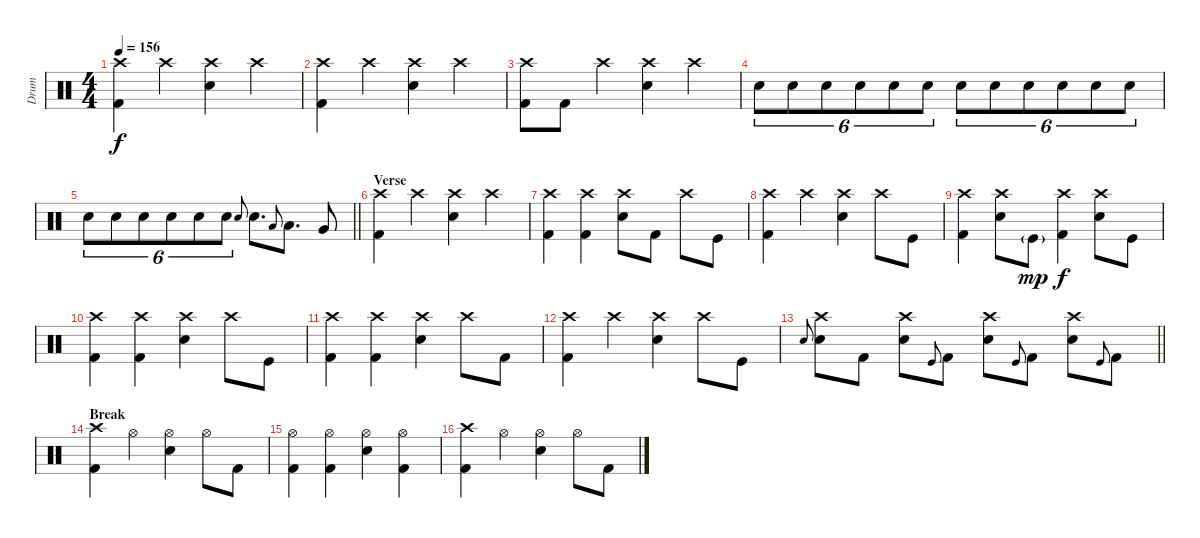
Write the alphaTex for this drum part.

\track ("Drum" "Drum") {instrument percussion}
\staff {score}
\articulation defaults
\ts (4 4)
\tempo 156
\clef neutral
\ks c
("Crash high (hit)" "Kick (hit) 2").4{dy f} "Crash high (hit)".4 ("Crash high (hit)" "Snare (hit) 2").4 "Crash high (hit)".4 |
("Crash high (hit)" "Kick (hit) 2").4 "Crash high (hit)".4 ("Crash high (hit)" "Snare (hit) 2").4 "Crash high (hit)".4 |
("Crash high (hit)" "Kick (hit) 2").8 "Kick (hit) 2".8 "Crash high (hit)".4 ("Crash high (hit)" "Snare (hit) 2").4 "Crash high (hit)".4 |
"Electric Snare (hit)".8{tu (6 4)} "Electric Snare (hit)".8{tu (6 4)} "Electric Snare (hit)".8{tu (6 4)} "Electric Snare (hit)".8{tu (6 4)} "Electric Snare (hit)".8{tu (6 4)} "Electric Snare (hit)".8{tu (6 4)} "Electric Snare (hit)".8{tu (6 4)} "Electric Snare (hit)".8{tu (6 4)} "Electric Snare (hit)".8{tu (6 4)} "Electric Snare (hit)".8{tu (6 4)} "Electric Snare (hit)".8{tu (6 4)} "Electric Snare (hit)".8{tu (6 4)} |
\barLineRight lightlight "Electric Snare (hit)".8{tu (6 4)} "Electric Snare (hit)".8{tu (6 4)} "Electric Snare (hit)".8{tu (6 4)} "Electric Snare (hit)".8{tu (6 4)} "Electric Snare (hit)".8{tu (6 4)} "Electric Snare (hit)".8{tu (6 4)} "Electric Snare (hit)".8{gr onbeat} "Electric Snare (hit)".8{d} "Low Tom (hit)".8{gr onbeat} "Low Tom (hit)".8{d} "Very Low Tom (hit)".8
|
\section ("" "Verse")
("Crash high (hit)" "Kick (hit) 2").4 "Crash high (hit)".4 ("Crash high (hit)" "Snare (hit) 2").4 "Crash high (hit)".4 |
("Crash high (hit)" "Kick (hit) 2").4 ("Crash high (hit)" "Kick (hit) 2").4 ("Crash high (hit)" "Snare (hit) 2").8 "Kick (hit) 2".8 "Crash high (hit)".8 "Kick (hit)".8 |
("Crash high (hit)" "Kick (hit) 2").4 "Crash high (hit)".4 ("Crash high (hit)" "Snare (hit) 2").4 "Crash high (hit)".8 "Kick (hit)".8 |
("Crash high (hit)" "Kick (hit) 2").4 ("Crash high (hit)" "Snare (hit) 2").8 "Kick (hit)"{g}.8{dy mp} ("Crash high (hit)" "Kick (hit) 2").4{dy f} ("Crash high (hit)" "Snare (hit) 2").8 "Kick (hit)".8 |
("Crash high (hit)" "Kick (hit) 2").4 ("Crash high (hit)" "Kick (hit) 2").4 ("Crash high (hit)" "Snare (hit) 2").4 "Crash high (hit)".8 "Kick (hit)".8 |
("Crash high (hit)" "Kick (hit) 2").4 ("Crash high (hit)" "Kick (hit) 2").4 ("Crash high (hit)" "Snare (hit) 2").4 "Crash high (hit)".8 "Kick (hit) 2".8 |
("Crash high (hit)" "Kick (hit) 2").4 "Crash high (hit)".4 ("Crash high (hit)" "Snare (hit) 2").4 "Crash high (hit)".8 "Kick (hit)".8 |
\barLineRight lightlight "Snare (hit) 2".8{gr onbeat}
("Crash high (hit)" "Snare (hit) 2").8 "Kick (hit) 2".8 ("Crash high (hit)" "Snare (hit) 2").8 "Kick (hit)".8{gr onbeat} "Kick (hit) 2".8 ("Crash high (hit)" "Snare (hit) 2").8 "Kick (hit)".8{gr onbeat} "Kick (hit) 2".8 ("Crash high (hit)" "Snare (hit) 2").8 "Kick (hit)".8{gr onbeat} "Kick (hit) 2".8 |
\section ("" "Break")
("Crash high (hit)" "Kick (hit) 2").4 "Hi-Hat (open)".4 ("Hi-Hat (open)" "Electric Snare (hit)").4 "Hi-Hat (open)".8 "Kick (hit) 2".8 |
("Hi-Hat (open)" "Kick (hit) 2").4 ("Hi-Hat (open)" "Kick (hit) 2").4 ("Hi-Hat (open)" "Electric Snare (hit)").4 ("Hi-Hat (open)" "Kick (hit) 2").4 |
("Crash high (hit)" "Kick (hit) 2").4 "Hi-Hat (open)".4 ("Hi-Hat (open)" "Electric Snare (hit)").4 "Hi-Hat (open)".8 "Kick (hit) 2".8
